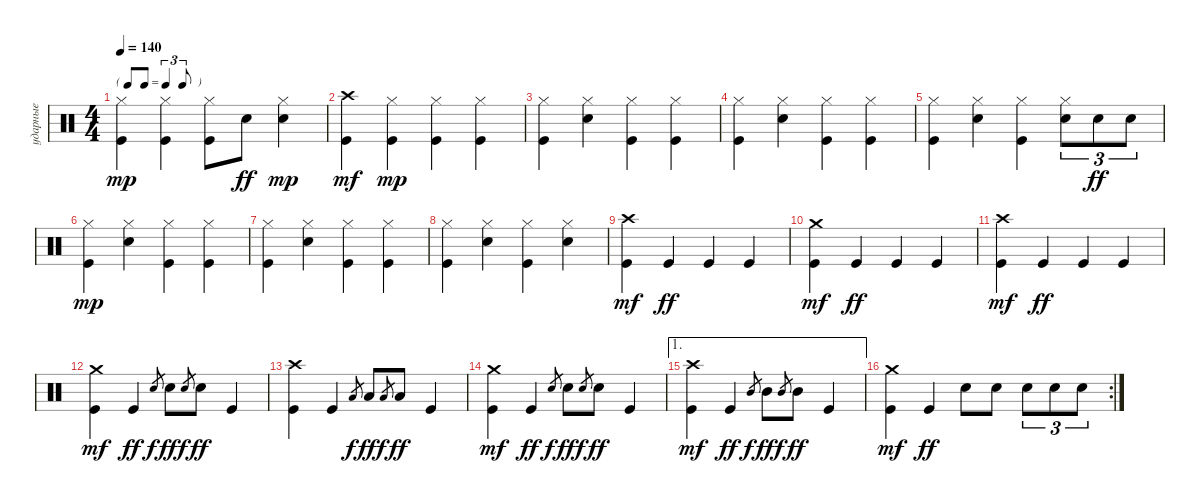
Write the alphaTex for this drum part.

\track ("ударные" "ударные") {instrument percussion}
\staff {score}
\articulation defaults
\ts (4 4)
\tf triplet8th
\tempo 140
\clef neutral
\ks aminor
("Kick (hit)" "Hi-Hat (closed)").4{dy mp} ("Kick (hit)" "Hi-Hat (closed)").4 ("Kick (hit)" "Hi-Hat (closed)").8 "Snare (hit) 2".8{dy ff} ("Snare (hit) 2" "Hi-Hat (closed)").4{dy mp} |
("Kick (hit)" "Crash high (hit)").4{dy mf} ("Kick (hit)" "Hi-Hat (closed)").4{dy mp} ("Kick (hit)" "Hi-Hat (closed)").4 ("Kick (hit)" "Hi-Hat (closed)").4 |
("Kick (hit)" "Hi-Hat (closed)").4 ("Snare (hit) 2" "Hi-Hat (closed)").4 ("Kick (hit)" "Hi-Hat (closed)").4 ("Kick (hit)" "Hi-Hat (closed)").4 |
("Kick (hit)" "Hi-Hat (closed)").4 ("Snare (hit) 2" "Hi-Hat (closed)").4 ("Kick (hit)" "Hi-Hat (closed)").4 ("Kick (hit)" "Hi-Hat (closed)").4 |
("Kick (hit)" "Hi-Hat (closed)").4 ("Snare (hit) 2" "Hi-Hat (closed)").4 ("Kick (hit)" "Hi-Hat (closed)").4 ("Snare (hit) 2" "Hi-Hat (closed)").8{tu (3 2)} "Snare (hit) 2".8{tu (3 2) dy ff} "Snare (hit) 2".8{tu (3 2)} |
("Kick (hit)" "Hi-Hat (closed)").4{dy mp} ("Snare (hit) 2" "Hi-Hat (closed)").4 ("Kick (hit)" "Hi-Hat (closed)").4 ("Kick (hit)" "Hi-Hat (closed)").4 |
("Kick (hit)" "Hi-Hat (closed)").4 ("Snare (hit) 2" "Hi-Hat (closed)").4 ("Kick (hit)" "Hi-Hat (closed)").4 ("Kick (hit)" "Hi-Hat (closed)").4 |
("Kick (hit)" "Hi-Hat (closed)").4 ("Snare (hit) 2" "Hi-Hat (closed)").4 ("Kick (hit)" "Hi-Hat (closed)").4 ("Snare (hit) 2" "Hi-Hat (closed)").4 |
("Kick (hit)" "Crash high (hit)").4{dy mf} "Kick (hit)".4{dy ff} "Kick (hit)".4 "Kick (hit)".4 |
("Kick (hit)" "Crash medium (hit)").4{dy mf} "Kick (hit)".4{dy ff} "Kick (hit)".4 "Kick (hit)".4 |
("Kick (hit)" "Crash high (hit)").4{dy mf} "Kick (hit)".4{dy ff} "Kick (hit)".4 "Kick (hit)".4 |
("Kick (hit)" "Crash medium (hit)").4{dy mf} "Kick (hit)".4{dy ff} "Snare (hit) 2".8{gr dy f} "Snare (hit) 2".8{dy ff} "Snare (hit) 2".8{gr dy f} "Snare (hit) 2".8{dy ff} "Kick (hit)".4 |
("Kick (hit)" "Crash high (hit)").4 "Kick (hit)".4 "Low Tom (hit)".8{gr dy f} "Low Tom (hit)".8{dy ff} "Low Tom (hit)".8{gr dy f} "Low Tom (hit)".8{dy ff} "Kick (hit)".4 |
("Kick (hit)" "Crash medium (hit)").4{dy mf} "Kick (hit)".4{dy ff} "Snare (hit) 2".8{gr dy f} "Snare (hit) 2".8{dy ff} "Snare (hit) 2".8{gr dy f} "Snare (hit) 2".8{dy ff} "Kick (hit)".4 |
\ae 1
("Kick (hit)" "Crash high (hit)").4{dy mf} "Kick (hit)".4{dy ff} "Mid Tom (hit)".8{gr dy f} "Mid Tom (hit)".8{dy ff} "Mid Tom (hit)".8{gr dy f} "Mid Tom (hit)".8{dy ff} "Kick (hit)".4 |
\rc 2
("Kick (hit)" "Crash medium (hit)").4{dy mf} "Kick (hit)".4{dy ff} "Snare (hit) 2".8 "Snare (hit) 2".8 "Snare (hit) 2".8{tu (3 2)} "Snare (hit) 2".8{tu (3 2)} "Snare (hit) 2".8{tu (3 2)}
